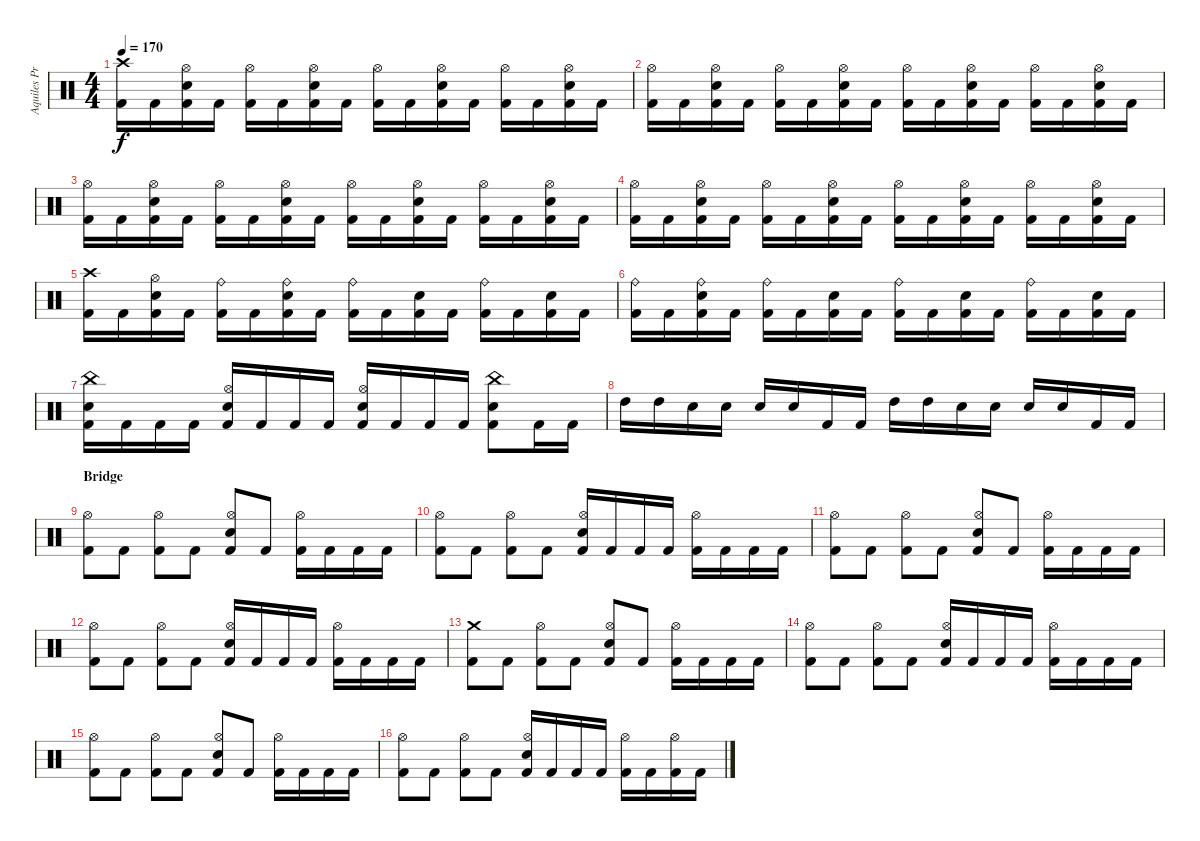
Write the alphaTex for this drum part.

\track ("Aquiles Priester" "Aquiles Pr") {instrument percussion}
\staff {score}
\articulation defaults
\ts (4 4)
\tempo 170
\clef neutral
\ks c
("Crash high (hit)" "Kick (hit) 2").16{dy f} "Kick (hit) 2".16 ("Hi-Hat (open)" "Electric Snare (hit)" "Kick (hit) 2").16 "Kick (hit) 2".16 ("Hi-Hat (open)" "Kick (hit) 2").16 "Kick (hit) 2".16 ("Hi-Hat (open)" "Electric Snare (hit)" "Kick (hit) 2").16 "Kick (hit) 2".16 ("Hi-Hat (open)" "Kick (hit) 2").16 "Kick (hit) 2".16 ("Hi-Hat (open)" "Electric Snare (hit)" "Kick (hit) 2").16 "Kick (hit) 2".16 ("Hi-Hat (open)" "Kick (hit) 2").16 "Kick (hit) 2".16 ("Hi-Hat (open)" "Electric Snare (hit)" "Kick (hit) 2").16 "Kick (hit) 2".16 |
("Hi-Hat (open)" "Kick (hit) 2").16 "Kick (hit) 2".16 ("Hi-Hat (open)" "Electric Snare (hit)" "Kick (hit) 2").16 "Kick (hit) 2".16 ("Hi-Hat (open)" "Kick (hit) 2").16 "Kick (hit) 2".16 ("Hi-Hat (open)" "Electric Snare (hit)" "Kick (hit) 2").16 "Kick (hit) 2".16 ("Hi-Hat (open)" "Kick (hit) 2").16 "Kick (hit) 2".16 ("Hi-Hat (open)" "Electric Snare (hit)" "Kick (hit) 2").16 "Kick (hit) 2".16 ("Hi-Hat (open)" "Kick (hit) 2").16 "Kick (hit) 2".16 ("Hi-Hat (open)" "Electric Snare (hit)" "Kick (hit) 2").16 "Kick (hit) 2".16 |
("Hi-Hat (open)" "Kick (hit) 2").16 "Kick (hit) 2".16 ("Hi-Hat (open)" "Electric Snare (hit)" "Kick (hit) 2").16 "Kick (hit) 2".16 ("Hi-Hat (open)" "Kick (hit) 2").16 "Kick (hit) 2".16 ("Hi-Hat (open)" "Electric Snare (hit)" "Kick (hit) 2").16 "Kick (hit) 2".16 ("Hi-Hat (open)" "Kick (hit) 2").16 "Kick (hit) 2".16 ("Hi-Hat (open)" "Electric Snare (hit)" "Kick (hit) 2").16 "Kick (hit) 2".16 ("Hi-Hat (open)" "Kick (hit) 2").16 "Kick (hit) 2".16 ("Hi-Hat (open)" "Electric Snare (hit)" "Kick (hit) 2").16 "Kick (hit) 2".16 |
("Hi-Hat (open)" "Kick (hit) 2").16 "Kick (hit) 2".16 ("Hi-Hat (open)" "Electric Snare (hit)" "Kick (hit) 2").16 "Kick (hit) 2".16 ("Hi-Hat (open)" "Kick (hit) 2").16 "Kick (hit) 2".16 ("Hi-Hat (open)" "Electric Snare (hit)" "Kick (hit) 2").16 "Kick (hit) 2".16 ("Hi-Hat (open)" "Kick (hit) 2").16 "Kick (hit) 2".16 ("Hi-Hat (open)" "Electric Snare (hit)" "Kick (hit) 2").16 "Kick (hit) 2".16 ("Hi-Hat (open)" "Kick (hit) 2").16 "Kick (hit) 2".16 ("Hi-Hat (open)" "Electric Snare (hit)" "Kick (hit) 2").16 "Kick (hit) 2".16 |
("Crash high (hit)" "Kick (hit) 2").16 "Kick (hit) 2".16 ("Hi-Hat (open)" "Electric Snare (hit)" "Kick (hit) 2").16 "Kick (hit) 2".16 ("Ride (bell)" "Kick (hit) 2").16 "Kick (hit) 2".16 ("Ride (bell)" "Electric Snare (hit)" "Kick (hit) 2").16 "Kick (hit) 2".16 ("Ride (bell)" "Kick (hit) 2").16 "Kick (hit) 2".16 ("Electric Snare (hit)" "Kick (hit) 2").16 "Kick (hit) 2".16 ("Ride (bell)" "Kick (hit) 2").16 "Kick (hit) 2".16 ("Electric Snare (hit)" "Kick (hit) 2").16 "Kick (hit) 2".16 |
("Ride (bell)" "Kick (hit) 2").16 "Kick (hit) 2".16 ("Ride (bell)" "Electric Snare (hit)" "Kick (hit) 2").16 "Kick (hit) 2".16 ("Ride (bell)" "Kick (hit) 2").16 "Kick (hit) 2".16 ("Electric Snare (hit)" "Kick (hit) 2").16 "Kick (hit) 2".16 ("Ride (bell)" "Kick (hit) 2").16 "Kick (hit) 2".16 ("Electric Snare (hit)" "Kick (hit) 2").16 "Kick (hit) 2".16 ("Ride (bell)" "Kick (hit) 2").16 "Kick (hit) 2".16 ("Electric Snare (hit)" "Kick (hit) 2").16 "Kick (hit) 2".16 |
("China (hit)" "Electric Snare (hit)" "Kick (hit) 2").16 "Kick (hit) 2".16 "Kick (hit) 2".16 "Kick (hit) 2".16 ("Hi-Hat (open)" "Electric Snare (hit)" "Kick (hit) 2").16 "Kick (hit) 2".16 "Kick (hit) 2".16 "Kick (hit) 2".16 ("Hi-Hat (open)" "Electric Snare (hit)" "Kick (hit) 2").16 "Kick (hit) 2".16 "Kick (hit) 2".16 "Kick (hit) 2".16 ("China (hit)" "Electric Snare (hit)" "Kick (hit) 2").8 "Kick (hit) 2".16 "Kick (hit) 2".16 |
"High Tom (hit)".16 "High Tom (hit)".16 "Electric Snare (hit)".16 "Electric Snare (hit)".16 "Electric Snare (hit)".16 "Electric Snare (hit)".16 "Kick (hit) 2".16 "Kick (hit) 2".16 "High Tom (hit)".16 "High Tom (hit)".16 "Electric Snare (hit)".16 "Electric Snare (hit)".16 "Electric Snare (hit)".16 "Electric Snare (hit)".16 "Kick (hit) 2".16 "Kick (hit) 2".16 |
\section ("" "Bridge")
("Hi-Hat (open)" "Kick (hit) 2").8 "Kick (hit) 2".8 ("Hi-Hat (open)" "Kick (hit) 2").8 "Kick (hit) 2".8 ("Electric Snare (hit)" "Kick (hit) 2" "Hi-Hat (open)").8 "Kick (hit) 2".8 ("Hi-Hat (open)" "Kick (hit) 2").16 "Kick (hit) 2".16 "Kick (hit) 2".16 "Kick (hit) 2".16 |
("Hi-Hat (open)" "Kick (hit) 2").8 "Kick (hit) 2".8 ("Hi-Hat (open)" "Kick (hit) 2").8 "Kick (hit) 2".8 ("Electric Snare (hit)" "Kick (hit) 2" "Hi-Hat (open)").16 "Kick (hit) 2".16 "Kick (hit) 2".16 "Kick (hit) 2".16 ("Hi-Hat (open)" "Kick (hit) 2").16 "Kick (hit) 2".16 "Kick (hit) 2".16 "Kick (hit) 2".16 |
("Hi-Hat (open)" "Kick (hit) 2").8 "Kick (hit) 2".8 ("Hi-Hat (open)" "Kick (hit) 2").8 "Kick (hit) 2".8 ("Electric Snare (hit)" "Kick (hit) 2" "Hi-Hat (open)").8 "Kick (hit) 2".8 ("Hi-Hat (open)" "Kick (hit) 2").16 "Kick (hit) 2".16 "Kick (hit) 2".16 "Kick (hit) 2".16 |
("Hi-Hat (open)" "Kick (hit) 2").8 "Kick (hit) 2".8 ("Hi-Hat (open)" "Kick (hit) 2").8 "Kick (hit) 2".8 ("Electric Snare (hit)" "Kick (hit) 2" "Hi-Hat (open)").16 "Kick (hit) 2".16 "Kick (hit) 2".16 "Kick (hit) 2".16 ("Hi-Hat (open)" "Kick (hit) 2").16 "Kick (hit) 2".16 "Kick (hit) 2".16 "Kick (hit) 2".16 |
("Crash medium (hit)" "Kick (hit) 2").8 "Kick (hit) 2".8 ("Hi-Hat (open)" "Kick (hit) 2").8 "Kick (hit) 2".8 ("Electric Snare (hit)" "Kick (hit) 2" "Hi-Hat (open)").8 "Kick (hit) 2".8 ("Hi-Hat (open)" "Kick (hit) 2").16 "Kick (hit) 2".16 "Kick (hit) 2".16 "Kick (hit) 2".16 |
("Hi-Hat (open)" "Kick (hit) 2").8 "Kick (hit) 2".8 ("Hi-Hat (open)" "Kick (hit) 2").8 "Kick (hit) 2".8 ("Electric Snare (hit)" "Kick (hit) 2" "Hi-Hat (open)").16 "Kick (hit) 2".16 "Kick (hit) 2".16 "Kick (hit) 2".16 ("Hi-Hat (open)" "Kick (hit) 2").16 "Kick (hit) 2".16 "Kick (hit) 2".16 "Kick (hit) 2".16 |
("Hi-Hat (open)" "Kick (hit) 2").8 "Kick (hit) 2".8 ("Hi-Hat (open)" "Kick (hit) 2").8 "Kick (hit) 2".8 ("Electric Snare (hit)" "Kick (hit) 2" "Hi-Hat (open)").8 "Kick (hit) 2".8 ("Hi-Hat (open)" "Kick (hit) 2").16 "Kick (hit) 2".16 "Kick (hit) 2".16 "Kick (hit) 2".16 |
("Hi-Hat (open)" "Kick (hit) 2").8 "Kick (hit) 2".8 ("Hi-Hat (open)" "Kick (hit) 2").8 "Kick (hit) 2".8 ("Electric Snare (hit)" "Kick (hit) 2" "Hi-Hat (open)").16 "Kick (hit) 2".16 "Kick (hit) 2".16 "Kick (hit) 2".16 ("Hi-Hat (open)" "Kick (hit) 2").16 "Kick (hit) 2".16 ("Hi-Hat (open)" "Kick (hit) 2").16 "Kick (hit) 2".16
